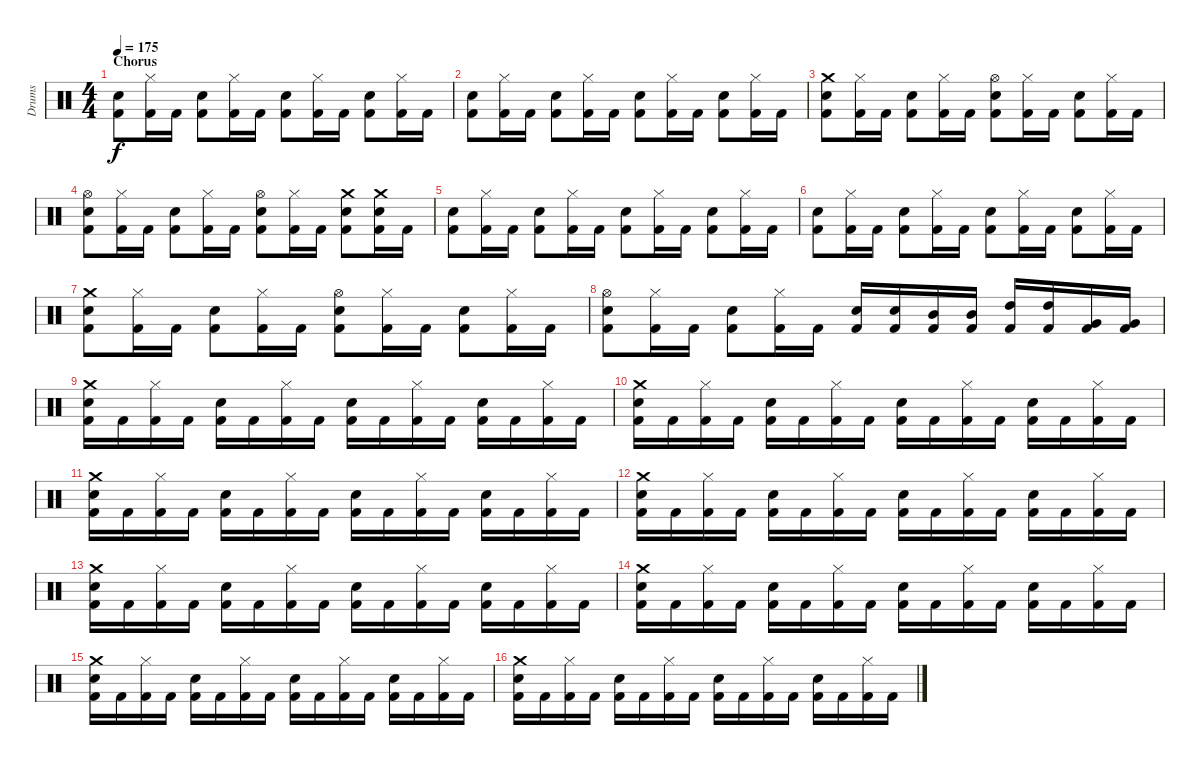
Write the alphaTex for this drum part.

\track ("Drums" "Drums") {instrument percussion}
\staff {score}
\articulation defaults
\ts (4 4)
\section ("" "Chorus")
\tempo 175
\clef neutral
\ks c
("Kick (hit) 2" "Snare (hit) 2").8{dy f} ("Kick (hit) 2" "Hi-Hat (closed)").16 "Kick (hit) 2".16 ("Kick (hit) 2" "Snare (hit) 2").8 ("Kick (hit) 2" "Hi-Hat (closed)").16 "Kick (hit) 2".16 ("Kick (hit) 2" "Snare (hit) 2").8 ("Kick (hit) 2" "Hi-Hat (closed)").16 "Kick (hit) 2".16 ("Kick (hit) 2" "Snare (hit) 2").8 ("Kick (hit) 2" "Hi-Hat (closed)").16 "Kick (hit) 2".16 |
("Kick (hit) 2" "Snare (hit) 2").8 ("Kick (hit) 2" "Hi-Hat (closed)").16 "Kick (hit) 2".16 ("Kick (hit) 2" "Snare (hit) 2").8 ("Kick (hit) 2" "Hi-Hat (closed)").16 "Kick (hit) 2".16 ("Kick (hit) 2" "Snare (hit) 2").8 ("Kick (hit) 2" "Hi-Hat (closed)").16 "Kick (hit) 2".16 ("Kick (hit) 2" "Snare (hit) 2").8 ("Kick (hit) 2" "Hi-Hat (closed)").16 "Kick (hit) 2".16 |
("Kick (hit) 2" "Snare (hit) 2" "Crash medium (hit)").8 ("Kick (hit) 2" "Hi-Hat (closed)").16 "Kick (hit) 2".16 ("Kick (hit) 2" "Snare (hit) 2").8 ("Kick (hit) 2" "Hi-Hat (closed)").16 "Kick (hit) 2".16 ("Kick (hit) 2" "Snare (hit) 2" "Hi-Hat (open)").8 ("Kick (hit) 2" "Hi-Hat (closed)").16 "Kick (hit) 2".16 ("Kick (hit) 2" "Snare (hit) 2").8 ("Kick (hit) 2" "Hi-Hat (closed)").16 "Kick (hit) 2".16 |
("Kick (hit) 2" "Snare (hit) 2" "Hi-Hat (open)").8 ("Kick (hit) 2" "Hi-Hat (closed)").16 "Kick (hit) 2".16 ("Kick (hit) 2" "Snare (hit) 2").8 ("Kick (hit) 2" "Hi-Hat (closed)").16 "Kick (hit) 2".16 ("Kick (hit) 2" "Snare (hit) 2" "Hi-Hat (open)").8 ("Kick (hit) 2" "Hi-Hat (closed)").16 "Kick (hit) 2".16 ("Kick (hit) 2" "Snare (hit) 2" "Crash medium (hit)").8 ("Kick (hit) 2" "Snare (hit) 2" "Crash medium (hit)").16 "Kick (hit) 2".16 |
("Kick (hit) 2" "Snare (hit) 2").8 ("Kick (hit) 2" "Hi-Hat (closed)").16 "Kick (hit) 2".16 ("Kick (hit) 2" "Snare (hit) 2").8 ("Kick (hit) 2" "Hi-Hat (closed)").16 "Kick (hit) 2".16 ("Kick (hit) 2" "Snare (hit) 2").8 ("Kick (hit) 2" "Hi-Hat (closed)").16 "Kick (hit) 2".16 ("Kick (hit) 2" "Snare (hit) 2").8 ("Kick (hit) 2" "Hi-Hat (closed)").16 "Kick (hit) 2".16 |
("Kick (hit) 2" "Snare (hit) 2").8 ("Kick (hit) 2" "Hi-Hat (closed)").16 "Kick (hit) 2".16 ("Kick (hit) 2" "Snare (hit) 2").8 ("Kick (hit) 2" "Hi-Hat (closed)").16 "Kick (hit) 2".16 ("Kick (hit) 2" "Snare (hit) 2").8 ("Kick (hit) 2" "Hi-Hat (closed)").16 "Kick (hit) 2".16 ("Kick (hit) 2" "Snare (hit) 2").8 ("Kick (hit) 2" "Hi-Hat (closed)").16 "Kick (hit) 2".16 |
("Kick (hit) 2" "Snare (hit) 2" "Crash medium (hit)").8 ("Kick (hit) 2" "Hi-Hat (closed)").16 "Kick (hit) 2".16 ("Kick (hit) 2" "Snare (hit) 2").8 ("Kick (hit) 2" "Hi-Hat (closed)").16 "Kick (hit) 2".16 ("Kick (hit) 2" "Snare (hit) 2" "Hi-Hat (open)").8 ("Kick (hit) 2" "Hi-Hat (closed)").16 "Kick (hit) 2".16 ("Kick (hit) 2" "Snare (hit) 2").8 ("Kick (hit) 2" "Hi-Hat (closed)").16 "Kick (hit) 2".16 |
("Kick (hit) 2" "Snare (hit) 2" "Hi-Hat (open)").8 ("Kick (hit) 2" "Hi-Hat (closed)").16 "Kick (hit) 2".16 ("Kick (hit) 2" "Snare (hit) 2").8 ("Kick (hit) 2" "Hi-Hat (closed)").16 "Kick (hit) 2".16 ("Electric Snare (hit)" "Kick (hit) 2").16 ("Electric Snare (hit)" "Kick (hit) 2").16 ("Mid Tom (hit)" "Kick (hit) 2").16 ("Mid Tom (hit)" "Kick (hit) 2").16 ("High Tom (hit)" "Kick (hit) 2").16 ("High Tom (hit)" "Kick (hit) 2").16 ("Very Low Tom (hit)" "Kick (hit) 2").16 ("Very Low Tom (hit)" "Kick (hit) 2").16 |
("Kick (hit) 2" "Snare (hit) 2" "Crash medium (hit)").16 "Kick (hit) 2".16 ("Kick (hit) 2" "Hi-Hat (closed)").16 "Kick (hit) 2".16 ("Kick (hit) 2" "Snare (hit) 2").16 "Kick (hit) 2".16 ("Kick (hit) 2" "Hi-Hat (closed)").16 "Kick (hit) 2".16 ("Kick (hit) 2" "Snare (hit) 2").16 "Kick (hit) 2".16 ("Kick (hit) 2" "Hi-Hat (closed)").16 "Kick (hit) 2".16 ("Kick (hit) 2" "Snare (hit) 2").16 "Kick (hit) 2".16 ("Kick (hit) 2" "Hi-Hat (closed)").16 "Kick (hit) 2".16 |
("Kick (hit) 2" "Snare (hit) 2" "Crash medium (hit)").16 "Kick (hit) 2".16 ("Kick (hit) 2" "Hi-Hat (closed)").16 "Kick (hit) 2".16 ("Kick (hit) 2" "Snare (hit) 2").16 "Kick (hit) 2".16 ("Kick (hit) 2" "Hi-Hat (closed)").16 "Kick (hit) 2".16 ("Kick (hit) 2" "Snare (hit) 2").16 "Kick (hit) 2".16 ("Kick (hit) 2" "Hi-Hat (closed)").16 "Kick (hit) 2".16 ("Kick (hit) 2" "Snare (hit) 2").16 "Kick (hit) 2".16 ("Kick (hit) 2" "Hi-Hat (closed)").16 "Kick (hit) 2".16 |
("Kick (hit) 2" "Snare (hit) 2" "Crash medium (hit)").16 "Kick (hit) 2".16 ("Kick (hit) 2" "Hi-Hat (closed)").16 "Kick (hit) 2".16 ("Kick (hit) 2" "Snare (hit) 2").16 "Kick (hit) 2".16 ("Kick (hit) 2" "Hi-Hat (closed)").16 "Kick (hit) 2".16 ("Kick (hit) 2" "Snare (hit) 2").16 "Kick (hit) 2".16 ("Kick (hit) 2" "Hi-Hat (closed)").16 "Kick (hit) 2".16 ("Kick (hit) 2" "Snare (hit) 2").16 "Kick (hit) 2".16 ("Kick (hit) 2" "Hi-Hat (closed)").16 "Kick (hit) 2".16 |
("Kick (hit) 2" "Snare (hit) 2" "Crash medium (hit)").16 "Kick (hit) 2".16 ("Kick (hit) 2" "Hi-Hat (closed)").16 "Kick (hit) 2".16 ("Kick (hit) 2" "Snare (hit) 2").16 "Kick (hit) 2".16 ("Kick (hit) 2" "Hi-Hat (closed)").16 "Kick (hit) 2".16 ("Kick (hit) 2" "Snare (hit) 2").16 "Kick (hit) 2".16 ("Kick (hit) 2" "Hi-Hat (closed)").16 "Kick (hit) 2".16 ("Kick (hit) 2" "Snare (hit) 2").16 "Kick (hit) 2".16 ("Kick (hit) 2" "Hi-Hat (closed)").16 "Kick (hit) 2".16 |
("Kick (hit) 2" "Snare (hit) 2" "Crash medium (hit)").16 "Kick (hit) 2".16 ("Kick (hit) 2" "Hi-Hat (closed)").16 "Kick (hit) 2".16 ("Kick (hit) 2" "Snare (hit) 2").16 "Kick (hit) 2".16 ("Kick (hit) 2" "Hi-Hat (closed)").16 "Kick (hit) 2".16 ("Kick (hit) 2" "Snare (hit) 2").16 "Kick (hit) 2".16 ("Kick (hit) 2" "Hi-Hat (closed)").16 "Kick (hit) 2".16 ("Kick (hit) 2" "Snare (hit) 2").16 "Kick (hit) 2".16 ("Kick (hit) 2" "Hi-Hat (closed)").16 "Kick (hit) 2".16 |
("Kick (hit) 2" "Snare (hit) 2" "Crash medium (hit)").16 "Kick (hit) 2".16 ("Kick (hit) 2" "Hi-Hat (closed)").16 "Kick (hit) 2".16 ("Kick (hit) 2" "Snare (hit) 2").16 "Kick (hit) 2".16 ("Kick (hit) 2" "Hi-Hat (closed)").16 "Kick (hit) 2".16 ("Kick (hit) 2" "Snare (hit) 2").16 "Kick (hit) 2".16 ("Kick (hit) 2" "Hi-Hat (closed)").16 "Kick (hit) 2".16 ("Kick (hit) 2" "Snare (hit) 2").16 "Kick (hit) 2".16 ("Kick (hit) 2" "Hi-Hat (closed)").16 "Kick (hit) 2".16 |
("Kick (hit) 2" "Snare (hit) 2" "Crash medium (hit)").16 "Kick (hit) 2".16 ("Kick (hit) 2" "Hi-Hat (closed)").16 "Kick (hit) 2".16 ("Kick (hit) 2" "Snare (hit) 2").16 "Kick (hit) 2".16 ("Kick (hit) 2" "Hi-Hat (closed)").16 "Kick (hit) 2".16 ("Kick (hit) 2" "Snare (hit) 2").16 "Kick (hit) 2".16 ("Kick (hit) 2" "Hi-Hat (closed)").16 "Kick (hit) 2".16 ("Kick (hit) 2" "Snare (hit) 2").16 "Kick (hit) 2".16 ("Kick (hit) 2" "Hi-Hat (closed)").16 "Kick (hit) 2".16 |
("Kick (hit) 2" "Snare (hit) 2" "Crash medium (hit)").16 "Kick (hit) 2".16 ("Kick (hit) 2" "Hi-Hat (closed)").16 "Kick (hit) 2".16 ("Kick (hit) 2" "Snare (hit) 2").16 "Kick (hit) 2".16 ("Kick (hit) 2" "Hi-Hat (closed)").16 "Kick (hit) 2".16 ("Kick (hit) 2" "Snare (hit) 2").16 "Kick (hit) 2".16 ("Kick (hit) 2" "Hi-Hat (closed)").16 "Kick (hit) 2".16 ("Kick (hit) 2" "Snare (hit) 2").16 "Kick (hit) 2".16 ("Kick (hit) 2" "Hi-Hat (closed)").16 "Kick (hit) 2".16
